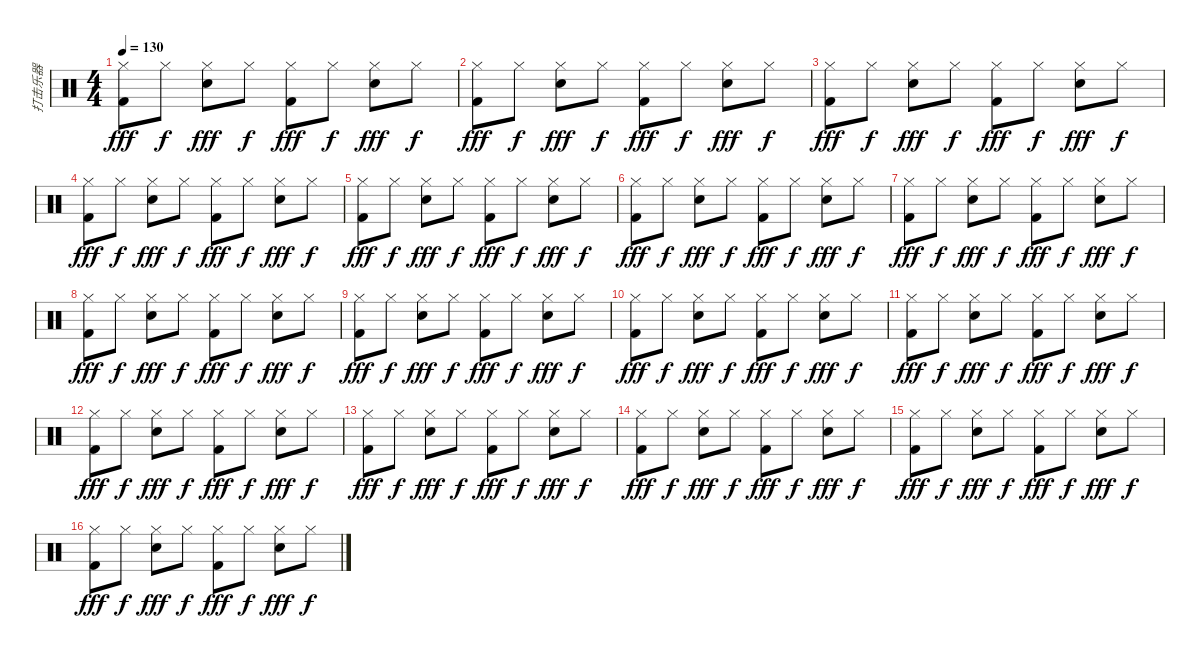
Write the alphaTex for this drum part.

\track ("打击乐器" "打击乐器") {instrument percussion}
\staff {score}
\articulation defaults
\ts (4 4)
\tempo 130
\clef neutral
\ks c
("Hi-Hat (closed)" "Kick (hit) 2").8{dy fff} "Hi-Hat (closed)".8{dy f} ("Hi-Hat (closed)" "Electric Snare (hit)").8{dy fff} "Hi-Hat (closed)".8{dy f} ("Hi-Hat (closed)" "Kick (hit) 2").8{dy fff} "Hi-Hat (closed)".8{dy f} ("Hi-Hat (closed)" "Electric Snare (hit)").8{dy fff} "Hi-Hat (closed)".8{dy f} |
("Hi-Hat (closed)" "Kick (hit) 2").8{dy fff} "Hi-Hat (closed)".8{dy f} ("Hi-Hat (closed)" "Electric Snare (hit)").8{dy fff} "Hi-Hat (closed)".8{dy f} ("Hi-Hat (closed)" "Kick (hit) 2").8{dy fff} "Hi-Hat (closed)".8{dy f} ("Hi-Hat (closed)" "Electric Snare (hit)").8{dy fff} "Hi-Hat (closed)".8{dy f} |
("Hi-Hat (closed)" "Kick (hit) 2").8{dy fff} "Hi-Hat (closed)".8{dy f} ("Hi-Hat (closed)" "Electric Snare (hit)").8{dy fff} "Hi-Hat (closed)".8{dy f} ("Hi-Hat (closed)" "Kick (hit) 2").8{dy fff} "Hi-Hat (closed)".8{dy f} ("Hi-Hat (closed)" "Electric Snare (hit)").8{dy fff} "Hi-Hat (closed)".8{dy f} |
("Hi-Hat (closed)" "Kick (hit) 2").8{dy fff} "Hi-Hat (closed)".8{dy f} ("Hi-Hat (closed)" "Electric Snare (hit)").8{dy fff} "Hi-Hat (closed)".8{dy f} ("Hi-Hat (closed)" "Kick (hit) 2").8{dy fff} "Hi-Hat (closed)".8{dy f} ("Hi-Hat (closed)" "Electric Snare (hit)").8{dy fff} "Hi-Hat (closed)".8{dy f} |
("Hi-Hat (closed)" "Kick (hit) 2").8{dy fff} "Hi-Hat (closed)".8{dy f} ("Hi-Hat (closed)" "Electric Snare (hit)").8{dy fff} "Hi-Hat (closed)".8{dy f} ("Hi-Hat (closed)" "Kick (hit) 2").8{dy fff} "Hi-Hat (closed)".8{dy f} ("Hi-Hat (closed)" "Electric Snare (hit)").8{dy fff} "Hi-Hat (closed)".8{dy f} |
("Hi-Hat (closed)" "Kick (hit) 2").8{dy fff} "Hi-Hat (closed)".8{dy f} ("Hi-Hat (closed)" "Electric Snare (hit)").8{dy fff} "Hi-Hat (closed)".8{dy f} ("Hi-Hat (closed)" "Kick (hit) 2").8{dy fff} "Hi-Hat (closed)".8{dy f} ("Hi-Hat (closed)" "Electric Snare (hit)").8{dy fff} "Hi-Hat (closed)".8{dy f} |
("Hi-Hat (closed)" "Kick (hit) 2").8{dy fff} "Hi-Hat (closed)".8{dy f} ("Hi-Hat (closed)" "Electric Snare (hit)").8{dy fff} "Hi-Hat (closed)".8{dy f} ("Hi-Hat (closed)" "Kick (hit) 2").8{dy fff} "Hi-Hat (closed)".8{dy f} ("Hi-Hat (closed)" "Electric Snare (hit)").8{dy fff} "Hi-Hat (closed)".8{dy f} |
("Hi-Hat (closed)" "Kick (hit) 2").8{dy fff} "Hi-Hat (closed)".8{dy f} ("Hi-Hat (closed)" "Electric Snare (hit)").8{dy fff} "Hi-Hat (closed)".8{dy f} ("Hi-Hat (closed)" "Kick (hit) 2").8{dy fff} "Hi-Hat (closed)".8{dy f} ("Hi-Hat (closed)" "Electric Snare (hit)").8{dy fff} "Hi-Hat (closed)".8{dy f} |
("Hi-Hat (closed)" "Kick (hit) 2").8{dy fff} "Hi-Hat (closed)".8{dy f} ("Hi-Hat (closed)" "Electric Snare (hit)").8{dy fff} "Hi-Hat (closed)".8{dy f} ("Hi-Hat (closed)" "Kick (hit) 2").8{dy fff} "Hi-Hat (closed)".8{dy f} ("Hi-Hat (closed)" "Electric Snare (hit)").8{dy fff} "Hi-Hat (closed)".8{dy f} |
("Hi-Hat (closed)" "Kick (hit) 2").8{dy fff} "Hi-Hat (closed)".8{dy f} ("Hi-Hat (closed)" "Electric Snare (hit)").8{dy fff} "Hi-Hat (closed)".8{dy f} ("Hi-Hat (closed)" "Kick (hit) 2").8{dy fff} "Hi-Hat (closed)".8{dy f} ("Hi-Hat (closed)" "Electric Snare (hit)").8{dy fff} "Hi-Hat (closed)".8{dy f} |
("Hi-Hat (closed)" "Kick (hit) 2").8{dy fff} "Hi-Hat (closed)".8{dy f} ("Hi-Hat (closed)" "Electric Snare (hit)").8{dy fff} "Hi-Hat (closed)".8{dy f} ("Hi-Hat (closed)" "Kick (hit) 2").8{dy fff} "Hi-Hat (closed)".8{dy f} ("Hi-Hat (closed)" "Electric Snare (hit)").8{dy fff} "Hi-Hat (closed)".8{dy f} |
("Hi-Hat (closed)" "Kick (hit) 2").8{dy fff} "Hi-Hat (closed)".8{dy f} ("Hi-Hat (closed)" "Electric Snare (hit)").8{dy fff} "Hi-Hat (closed)".8{dy f} ("Hi-Hat (closed)" "Kick (hit) 2").8{dy fff} "Hi-Hat (closed)".8{dy f} ("Hi-Hat (closed)" "Electric Snare (hit)").8{dy fff} "Hi-Hat (closed)".8{dy f} |
("Hi-Hat (closed)" "Kick (hit) 2").8{dy fff} "Hi-Hat (closed)".8{dy f} ("Hi-Hat (closed)" "Electric Snare (hit)").8{dy fff} "Hi-Hat (closed)".8{dy f} ("Hi-Hat (closed)" "Kick (hit) 2").8{dy fff} "Hi-Hat (closed)".8{dy f} ("Hi-Hat (closed)" "Electric Snare (hit)").8{dy fff} "Hi-Hat (closed)".8{dy f} |
("Hi-Hat (closed)" "Kick (hit) 2").8{dy fff} "Hi-Hat (closed)".8{dy f} ("Hi-Hat (closed)" "Electric Snare (hit)").8{dy fff} "Hi-Hat (closed)".8{dy f} ("Hi-Hat (closed)" "Kick (hit) 2").8{dy fff} "Hi-Hat (closed)".8{dy f} ("Hi-Hat (closed)" "Electric Snare (hit)").8{dy fff} "Hi-Hat (closed)".8{dy f} |
("Hi-Hat (closed)" "Kick (hit) 2").8{dy fff} "Hi-Hat (closed)".8{dy f} ("Hi-Hat (closed)" "Electric Snare (hit)").8{dy fff} "Hi-Hat (closed)".8{dy f} ("Hi-Hat (closed)" "Kick (hit) 2").8{dy fff} "Hi-Hat (closed)".8{dy f} ("Hi-Hat (closed)" "Electric Snare (hit)").8{dy fff} "Hi-Hat (closed)".8{dy f} |
("Hi-Hat (closed)" "Kick (hit) 2").8{dy fff} "Hi-Hat (closed)".8{dy f} ("Hi-Hat (closed)" "Electric Snare (hit)").8{dy fff} "Hi-Hat (closed)".8{dy f} ("Hi-Hat (closed)" "Kick (hit) 2").8{dy fff} "Hi-Hat (closed)".8{dy f} ("Hi-Hat (closed)" "Electric Snare (hit)").8{dy fff} "Hi-Hat (closed)".8{dy f}
